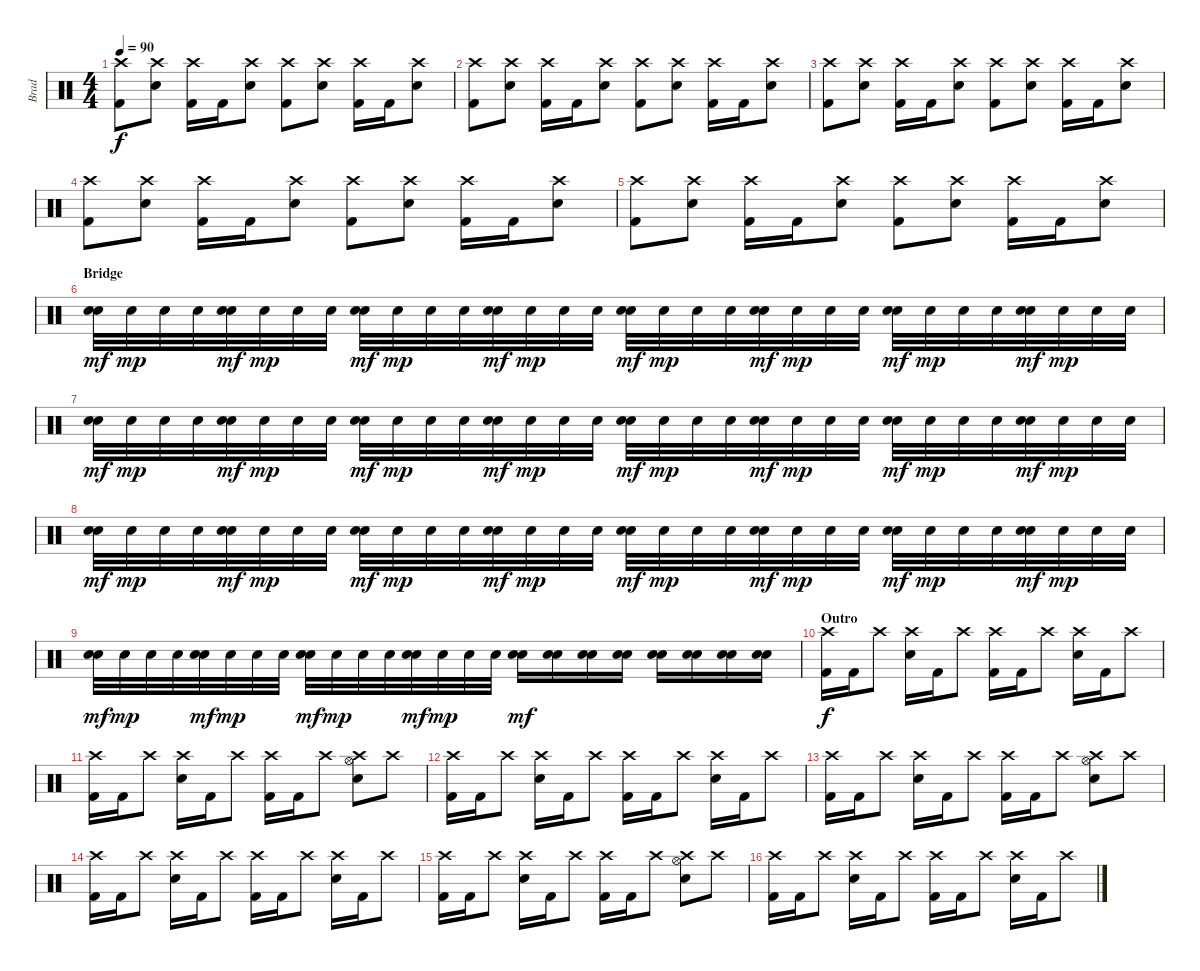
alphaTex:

\track ("Brad" "Brad") {instrument percussion}
\staff {score}
\articulation defaults
\ts (4 4)
\tempo 90
\clef neutral
\ks c
("Crash high (hit)" "Kick (hit) 2").8{dy f} ("Crash high (hit)" "Electric Snare (hit)").8 ("Crash high (hit)" "Kick (hit) 2").16 "Kick (hit) 2".16 ("Crash high (hit)" "Electric Snare (hit)").8 ("Crash high (hit)" "Kick (hit) 2").8 ("Crash high (hit)" "Electric Snare (hit)").8 ("Crash high (hit)" "Kick (hit) 2").16 "Kick (hit) 2".16 ("Crash high (hit)" "Electric Snare (hit)").8 |
("Crash high (hit)" "Kick (hit) 2").8 ("Crash high (hit)" "Electric Snare (hit)").8 ("Crash high (hit)" "Kick (hit) 2").16 "Kick (hit) 2".16 ("Crash high (hit)" "Electric Snare (hit)").8 ("Crash high (hit)" "Kick (hit) 2").8 ("Crash high (hit)" "Electric Snare (hit)").8 ("Crash high (hit)" "Kick (hit) 2").16 "Kick (hit) 2".16 ("Crash high (hit)" "Electric Snare (hit)").8 |
("Crash high (hit)" "Kick (hit) 2").8 ("Crash high (hit)" "Electric Snare (hit)").8 ("Crash high (hit)" "Kick (hit) 2").16 "Kick (hit) 2".16 ("Crash high (hit)" "Electric Snare (hit)").8 ("Crash high (hit)" "Kick (hit) 2").8 ("Crash high (hit)" "Electric Snare (hit)").8 ("Crash high (hit)" "Kick (hit) 2").16 "Kick (hit) 2".16 ("Crash high (hit)" "Electric Snare (hit)").8 |
("Crash high (hit)" "Kick (hit) 2").8 ("Crash high (hit)" "Electric Snare (hit)").8 ("Crash high (hit)" "Kick (hit) 2").16 "Kick (hit) 2".16 ("Crash high (hit)" "Electric Snare (hit)").8 ("Crash high (hit)" "Kick (hit) 2").8 ("Crash high (hit)" "Electric Snare (hit)").8 ("Crash high (hit)" "Kick (hit) 2").16 "Kick (hit) 2".16 ("Crash high (hit)" "Electric Snare (hit)").8 |
("Crash high (hit)" "Kick (hit) 2").8 ("Crash high (hit)" "Electric Snare (hit)").8 ("Crash high (hit)" "Kick (hit) 2").16 "Kick (hit) 2".16 ("Crash high (hit)" "Electric Snare (hit)").8 ("Crash high (hit)" "Kick (hit) 2").8 ("Crash high (hit)" "Electric Snare (hit)").8 ("Crash high (hit)" "Kick (hit) 2").16 "Kick (hit) 2".16 ("Crash high (hit)" "Electric Snare (hit)").8 |
\section ("" "Bridge")
("Electric Snare (hit)" "Electric Snare (hit)").32{dy mf} "Electric Snare (hit)".32{dy mp} "Electric Snare (hit)".32 "Electric Snare (hit)".32 ("Electric Snare (hit)" "Electric Snare (hit)").32{dy mf} "Electric Snare (hit)".32{dy mp} "Electric Snare (hit)".32 "Electric Snare (hit)".32 ("Electric Snare (hit)" "Electric Snare (hit)").32{dy mf} "Electric Snare (hit)".32{dy mp} "Electric Snare (hit)".32 "Electric Snare (hit)".32 ("Electric Snare (hit)" "Electric Snare (hit)").32{dy mf} "Electric Snare (hit)".32{dy mp} "Electric Snare (hit)".32 "Electric Snare (hit)".32 ("Electric Snare (hit)" "Electric Snare (hit)").32{dy mf} "Electric Snare (hit)".32{dy mp} "Electric Snare (hit)".32 "Electric Snare (hit)".32 ("Electric Snare (hit)" "Electric Snare (hit)").32{dy mf} "Electric Snare (hit)".32{dy mp} "Electric Snare (hit)".32 "Electric Snare (hit)".32 ("Electric Snare (hit)" "Electric Snare (hit)").32{dy mf} "Electric Snare (hit)".32{dy mp} "Electric Snare (hit)".32 "Electric Snare (hit)".32 ("Electric Snare (hit)" "Electric Snare (hit)").32{dy mf} "Electric Snare (hit)".32{dy mp} "Electric Snare (hit)".32 "Electric Snare (hit)".32 |
("Electric Snare (hit)" "Electric Snare (hit)").32{dy mf} "Electric Snare (hit)".32{dy mp} "Electric Snare (hit)".32 "Electric Snare (hit)".32 ("Electric Snare (hit)" "Electric Snare (hit)").32{dy mf} "Electric Snare (hit)".32{dy mp} "Electric Snare (hit)".32 "Electric Snare (hit)".32 ("Electric Snare (hit)" "Electric Snare (hit)").32{dy mf} "Electric Snare (hit)".32{dy mp} "Electric Snare (hit)".32 "Electric Snare (hit)".32 ("Electric Snare (hit)" "Electric Snare (hit)").32{dy mf} "Electric Snare (hit)".32{dy mp} "Electric Snare (hit)".32 "Electric Snare (hit)".32 ("Electric Snare (hit)" "Electric Snare (hit)").32{dy mf} "Electric Snare (hit)".32{dy mp} "Electric Snare (hit)".32 "Electric Snare (hit)".32 ("Electric Snare (hit)" "Electric Snare (hit)").32{dy mf} "Electric Snare (hit)".32{dy mp} "Electric Snare (hit)".32 "Electric Snare (hit)".32 ("Electric Snare (hit)" "Electric Snare (hit)").32{dy mf} "Electric Snare (hit)".32{dy mp} "Electric Snare (hit)".32 "Electric Snare (hit)".32 ("Electric Snare (hit)" "Electric Snare (hit)").32{dy mf} "Electric Snare (hit)".32{dy mp} "Electric Snare (hit)".32 "Electric Snare (hit)".32 |
("Electric Snare (hit)" "Electric Snare (hit)").32{dy mf} "Electric Snare (hit)".32{dy mp} "Electric Snare (hit)".32 "Electric Snare (hit)".32 ("Electric Snare (hit)" "Electric Snare (hit)").32{dy mf} "Electric Snare (hit)".32{dy mp} "Electric Snare (hit)".32 "Electric Snare (hit)".32 ("Electric Snare (hit)" "Electric Snare (hit)").32{dy mf} "Electric Snare (hit)".32{dy mp} "Electric Snare (hit)".32 "Electric Snare (hit)".32 ("Electric Snare (hit)" "Electric Snare (hit)").32{dy mf} "Electric Snare (hit)".32{dy mp} "Electric Snare (hit)".32 "Electric Snare (hit)".32 ("Electric Snare (hit)" "Electric Snare (hit)").32{dy mf} "Electric Snare (hit)".32{dy mp} "Electric Snare (hit)".32 "Electric Snare (hit)".32 ("Electric Snare (hit)" "Electric Snare (hit)").32{dy mf} "Electric Snare (hit)".32{dy mp} "Electric Snare (hit)".32 "Electric Snare (hit)".32 ("Electric Snare (hit)" "Electric Snare (hit)").32{dy mf} "Electric Snare (hit)".32{dy mp} "Electric Snare (hit)".32 "Electric Snare (hit)".32 ("Electric Snare (hit)" "Electric Snare (hit)").32{dy mf} "Electric Snare (hit)".32{dy mp} "Electric Snare (hit)".32 "Electric Snare (hit)".32 |
("Electric Snare (hit)" "Electric Snare (hit)").32{dy mf} "Electric Snare (hit)".32{dy mp} "Electric Snare (hit)".32 "Electric Snare (hit)".32 ("Electric Snare (hit)" "Electric Snare (hit)").32{dy mf} "Electric Snare (hit)".32{dy mp} "Electric Snare (hit)".32 "Electric Snare (hit)".32 ("Electric Snare (hit)" "Electric Snare (hit)").32{dy mf} "Electric Snare (hit)".32{dy mp} "Electric Snare (hit)".32 "Electric Snare (hit)".32 ("Electric Snare (hit)" "Electric Snare (hit)").32{dy mf} "Electric Snare (hit)".32{dy mp} "Electric Snare (hit)".32 "Electric Snare (hit)".32 ("Electric Snare (hit)" "Electric Snare (hit)").16{dy mf} ("Electric Snare (hit)" "Electric Snare (hit)").16 ("Electric Snare (hit)" "Electric Snare (hit)").16 ("Electric Snare (hit)" "Electric Snare (hit)").16 ("Electric Snare (hit)" "Electric Snare (hit)").16 ("Electric Snare (hit)" "Electric Snare (hit)").16 ("Electric Snare (hit)" "Electric Snare (hit)").16 ("Electric Snare (hit)" "Electric Snare (hit)").16 |
\section ("" "Outro")
("Crash high (hit)" "Kick (hit) 2").16{dy f} "Kick (hit) 2".16 "Crash high (hit)".8 ("Crash high (hit)" "Electric Snare (hit)").16 "Kick (hit) 2".16 "Crash high (hit)".8 ("Crash high (hit)" "Kick (hit) 2").16 "Kick (hit) 2".16 "Crash high (hit)".8 ("Crash high (hit)" "Electric Snare (hit)").16 "Kick (hit) 2".16 "Crash high (hit)".8 |
("Crash high (hit)" "Kick (hit) 2").16 "Kick (hit) 2".16 "Crash high (hit)".8 ("Crash high (hit)" "Electric Snare (hit)").16 "Kick (hit) 2".16 "Crash high (hit)".8 ("Crash high (hit)" "Kick (hit) 2").16 "Kick (hit) 2".16 "Crash high (hit)".8 ("Crash high (hit)" "Hi-Hat (open)" "Electric Snare (hit)").8 "Crash high (hit)".8 |
("Crash high (hit)" "Kick (hit) 2").16 "Kick (hit) 2".16 "Crash high (hit)".8 ("Crash high (hit)" "Electric Snare (hit)").16 "Kick (hit) 2".16 "Crash high (hit)".8 ("Crash high (hit)" "Kick (hit) 2").16 "Kick (hit) 2".16 "Crash high (hit)".8 ("Crash high (hit)" "Electric Snare (hit)").16 "Kick (hit) 2".16 "Crash high (hit)".8 |
("Crash high (hit)" "Kick (hit) 2").16 "Kick (hit) 2".16 "Crash high (hit)".8 ("Crash high (hit)" "Electric Snare (hit)").16 "Kick (hit) 2".16 "Crash high (hit)".8 ("Crash high (hit)" "Kick (hit) 2").16 "Kick (hit) 2".16 "Crash high (hit)".8 ("Crash high (hit)" "Hi-Hat (open)" "Electric Snare (hit)").8 "Crash high (hit)".8 |
("Crash high (hit)" "Kick (hit) 2").16 "Kick (hit) 2".16 "Crash high (hit)".8 ("Crash high (hit)" "Electric Snare (hit)").16 "Kick (hit) 2".16 "Crash high (hit)".8 ("Crash high (hit)" "Kick (hit) 2").16 "Kick (hit) 2".16 "Crash high (hit)".8 ("Crash high (hit)" "Electric Snare (hit)").16 "Kick (hit) 2".16 "Crash high (hit)".8 |
("Crash high (hit)" "Kick (hit) 2").16 "Kick (hit) 2".16 "Crash high (hit)".8 ("Crash high (hit)" "Electric Snare (hit)").16 "Kick (hit) 2".16 "Crash high (hit)".8 ("Crash high (hit)" "Kick (hit) 2").16 "Kick (hit) 2".16 "Crash high (hit)".8 ("Crash high (hit)" "Hi-Hat (open)" "Electric Snare (hit)").8 "Crash high (hit)".8 |
("Crash high (hit)" "Kick (hit) 2").16 "Kick (hit) 2".16 "Crash high (hit)".8 ("Crash high (hit)" "Electric Snare (hit)").16 "Kick (hit) 2".16 "Crash high (hit)".8 ("Crash high (hit)" "Kick (hit) 2").16 "Kick (hit) 2".16 "Crash high (hit)".8 ("Crash high (hit)" "Electric Snare (hit)").16 "Kick (hit) 2".16 "Crash high (hit)".8
